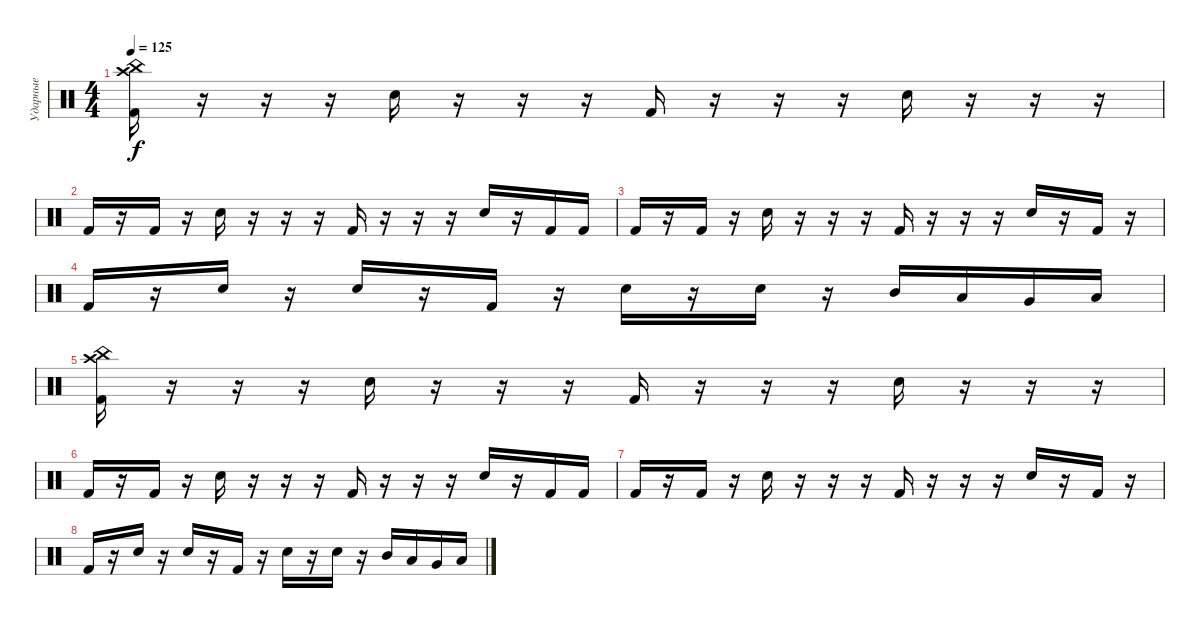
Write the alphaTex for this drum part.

\track ("Ударные" "Ударные") {instrument percussion}
\staff {score}
\articulation defaults
\ts (4 4)
\tempo 125
\clef neutral
\ks c
("Crash high (hit)" "China (hit)" "Kick (hit) 2").16{dy f} r.16 r.16 r.16 "Snare (hit) 2".16 r.16 r.16 r.16 "Kick (hit) 2".16 r.16 r.16 r.16 "Snare (hit) 2".16 r.16 r.16 r.16 |
"Kick (hit) 2".16 r.16 "Kick (hit) 2".16 r.16 "Snare (hit) 2".16 r.16 r.16 r.16 "Kick (hit) 2".16 r.16 r.16 r.16 "Snare (hit) 2".16 r.16 "Kick (hit) 2".16 "Kick (hit) 2".16 |
"Kick (hit) 2".16 r.16 "Kick (hit) 2".16 r.16 "Snare (hit) 2".16 r.16 r.16 r.16 "Kick (hit) 2".16 r.16 r.16 r.16 "Snare (hit) 2".16 r.16 "Kick (hit) 2".16 r.16 |
"Kick (hit) 2".16 r.16 "Snare (hit) 2".16 r.16 "Snare (hit) 2".16 r.16 "Kick (hit) 2".16 r.16 "Snare (hit) 2".16 r.16 "Snare (hit) 2".16 r.16 "Mid Tom (hit)".16 "Low Tom (hit)".16 "Very Low Tom (hit)".16 "Low Floor Tom (hit)".16 |
("Crash high (hit)" "China (hit)" "Kick (hit) 2").16 r.16 r.16 r.16 "Snare (hit) 2".16 r.16 r.16 r.16 "Kick (hit) 2".16 r.16 r.16 r.16 "Snare (hit) 2".16 r.16 r.16 r.16 |
"Kick (hit) 2".16 r.16 "Kick (hit) 2".16 r.16 "Snare (hit) 2".16 r.16 r.16 r.16 "Kick (hit) 2".16 r.16 r.16 r.16 "Snare (hit) 2".16 r.16 "Kick (hit) 2".16 "Kick (hit) 2".16 |
"Kick (hit) 2".16 r.16 "Kick (hit) 2".16 r.16 "Snare (hit) 2".16 r.16 r.16 r.16 "Kick (hit) 2".16 r.16 r.16 r.16 "Snare (hit) 2".16 r.16 "Kick (hit) 2".16 r.16 |
"Kick (hit) 2".16 r.16 "Snare (hit) 2".16 r.16 "Snare (hit) 2".16 r.16 "Kick (hit) 2".16 r.16 "Snare (hit) 2".16 r.16 "Snare (hit) 2".16 r.16 "Mid Tom (hit)".16 "Low Tom (hit)".16 "Very Low Tom (hit)".16 "Low Floor Tom (hit)".16
